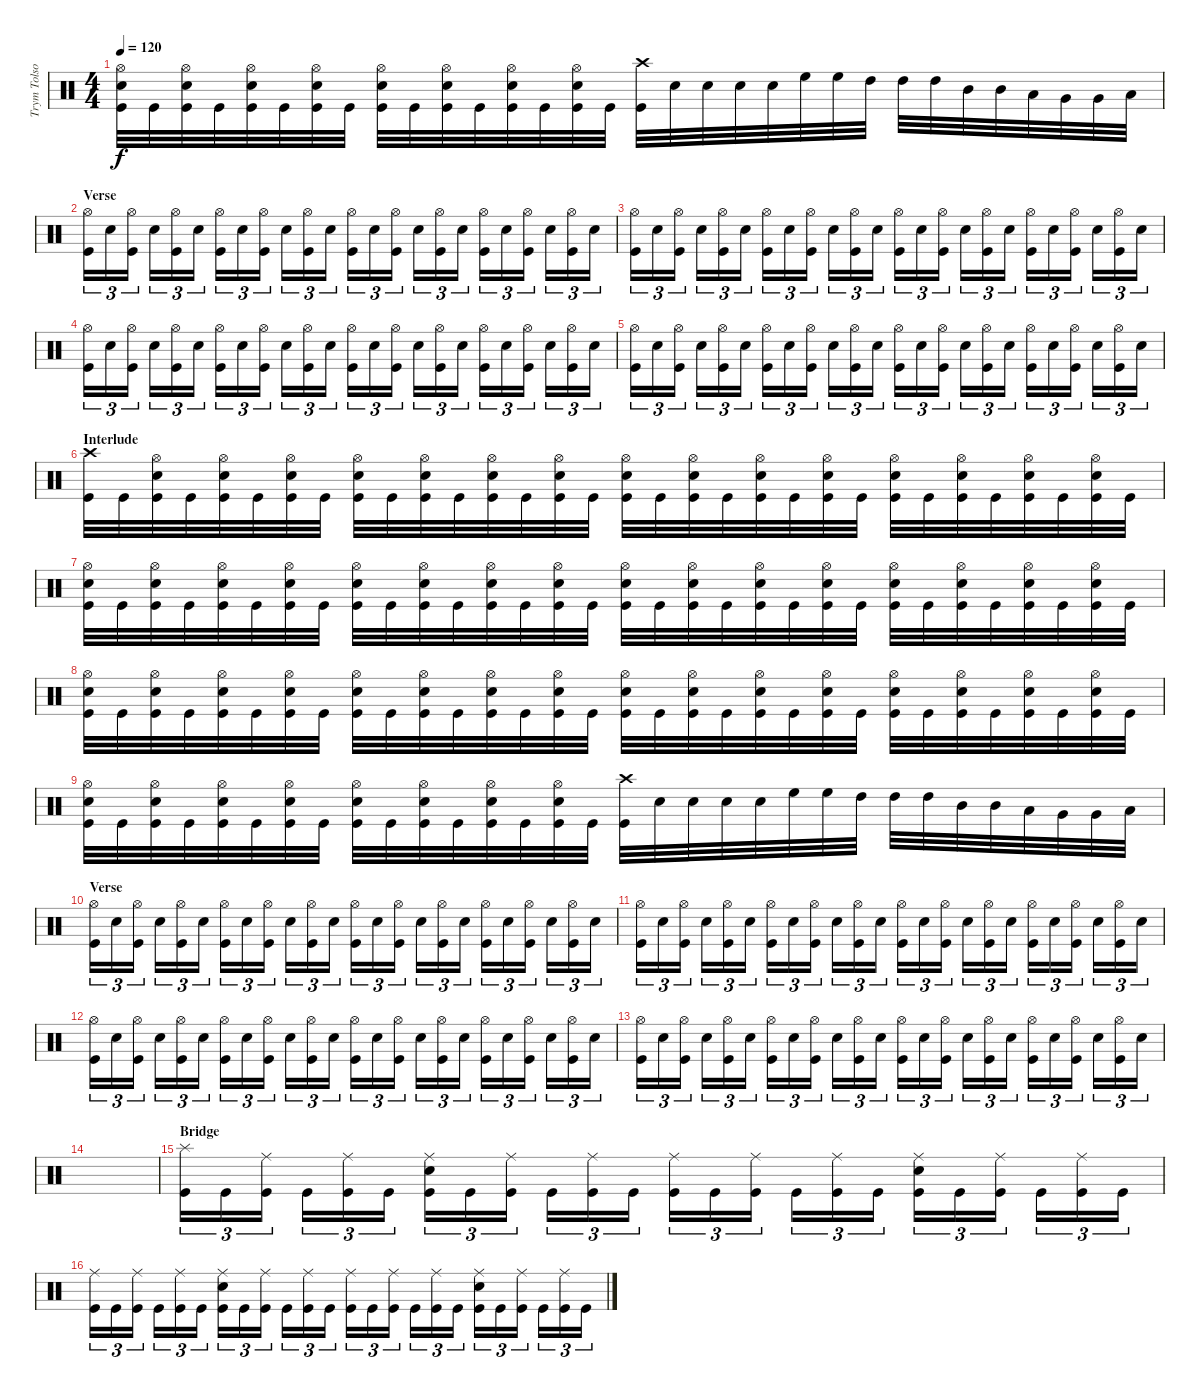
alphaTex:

\track ("Trym Tolson" "Trym Tolso") {instrument percussion}
\staff {score}
\articulation defaults
\ts (4 4)
\tempo 120
\clef neutral
\ks c
("Hi-Hat (open)" "Electric Snare (hit)" "Kick (hit)").32{dy f} "Kick (hit)".32 ("Hi-Hat (open)" "Electric Snare (hit)" "Kick (hit)").32 "Kick (hit)".32 ("Hi-Hat (open)" "Electric Snare (hit)" "Kick (hit)").32 "Kick (hit)".32 ("Hi-Hat (open)" "Electric Snare (hit)" "Kick (hit)").32 "Kick (hit)".32 ("Hi-Hat (open)" "Electric Snare (hit)" "Kick (hit)").32 "Kick (hit)".32 ("Hi-Hat (open)" "Electric Snare (hit)" "Kick (hit)").32 "Kick (hit)".32 ("Hi-Hat (open)" "Electric Snare (hit)" "Kick (hit)").32 "Kick (hit)".32 ("Hi-Hat (open)" "Electric Snare (hit)" "Kick (hit)").32 "Kick (hit)".32 ("Crash high (hit)" "Kick (hit)").32 "Electric Snare (hit)".32 "Electric Snare (hit)".32 "Electric Snare (hit)".32 "Electric Snare (hit)".32 "High Floor Tom (hit)".32 "High Floor Tom (hit)".32 "High Tom (hit)".32 "High Tom (hit)".32 "High Tom (hit)".32 "Mid Tom (hit)".32 "Mid Tom (hit)".32 "Low Tom (hit)".32 "Very Low Tom (hit)".32 "Very Low Tom (hit)".32 "Low Floor Tom (hit)".32 |
\section ("" "Verse")
("Hi-Hat (open)" "Kick (hit)").16{tu (3 2)} "Electric Snare (hit)".16{tu (3 2)} ("Hi-Hat (open)" "Kick (hit)").16{tu (3 2)} "Electric Snare (hit)".16{tu (3 2)} ("Hi-Hat (open)" "Kick (hit)").16{tu (3 2)} "Electric Snare (hit)".16{tu (3 2)} ("Hi-Hat (open)" "Kick (hit)").16{tu (3 2)} "Electric Snare (hit)".16{tu (3 2)} ("Hi-Hat (open)" "Kick (hit)").16{tu (3 2)} "Electric Snare (hit)".16{tu (3 2)} ("Hi-Hat (open)" "Kick (hit)").16{tu (3 2)} "Electric Snare (hit)".16{tu (3 2)} ("Hi-Hat (open)" "Kick (hit)").16{tu (3 2)} "Electric Snare (hit)".16{tu (3 2)} ("Hi-Hat (open)" "Kick (hit)").16{tu (3 2)} "Electric Snare (hit)".16{tu (3 2)} ("Hi-Hat (open)" "Kick (hit)").16{tu (3 2)} "Electric Snare (hit)".16{tu (3 2)} ("Hi-Hat (open)" "Kick (hit)").16{tu (3 2)} "Electric Snare (hit)".16{tu (3 2)} ("Hi-Hat (open)" "Kick (hit)").16{tu (3 2)} "Electric Snare (hit)".16{tu (3 2)} ("Hi-Hat (open)" "Kick (hit)").16{tu (3 2)} "Electric Snare (hit)".16{tu (3 2)} |
("Hi-Hat (open)" "Kick (hit)").16{tu (3 2)} "Electric Snare (hit)".16{tu (3 2)} ("Hi-Hat (open)" "Kick (hit)").16{tu (3 2)} "Electric Snare (hit)".16{tu (3 2)} ("Hi-Hat (open)" "Kick (hit)").16{tu (3 2)} "Electric Snare (hit)".16{tu (3 2)} ("Hi-Hat (open)" "Kick (hit)").16{tu (3 2)} "Electric Snare (hit)".16{tu (3 2)} ("Hi-Hat (open)" "Kick (hit)").16{tu (3 2)} "Electric Snare (hit)".16{tu (3 2)} ("Hi-Hat (open)" "Kick (hit)").16{tu (3 2)} "Electric Snare (hit)".16{tu (3 2)} ("Hi-Hat (open)" "Kick (hit)").16{tu (3 2)} "Electric Snare (hit)".16{tu (3 2)} ("Hi-Hat (open)" "Kick (hit)").16{tu (3 2)} "Electric Snare (hit)".16{tu (3 2)} ("Hi-Hat (open)" "Kick (hit)").16{tu (3 2)} "Electric Snare (hit)".16{tu (3 2)} ("Hi-Hat (open)" "Kick (hit)").16{tu (3 2)} "Electric Snare (hit)".16{tu (3 2)} ("Hi-Hat (open)" "Kick (hit)").16{tu (3 2)} "Electric Snare (hit)".16{tu (3 2)} ("Hi-Hat (open)" "Kick (hit)").16{tu (3 2)} "Electric Snare (hit)".16{tu (3 2)} |
("Hi-Hat (open)" "Kick (hit)").16{tu (3 2)} "Electric Snare (hit)".16{tu (3 2)} ("Hi-Hat (open)" "Kick (hit)").16{tu (3 2)} "Electric Snare (hit)".16{tu (3 2)} ("Hi-Hat (open)" "Kick (hit)").16{tu (3 2)} "Electric Snare (hit)".16{tu (3 2)} ("Hi-Hat (open)" "Kick (hit)").16{tu (3 2)} "Electric Snare (hit)".16{tu (3 2)} ("Hi-Hat (open)" "Kick (hit)").16{tu (3 2)} "Electric Snare (hit)".16{tu (3 2)} ("Hi-Hat (open)" "Kick (hit)").16{tu (3 2)} "Electric Snare (hit)".16{tu (3 2)} ("Hi-Hat (open)" "Kick (hit)").16{tu (3 2)} "Electric Snare (hit)".16{tu (3 2)} ("Hi-Hat (open)" "Kick (hit)").16{tu (3 2)} "Electric Snare (hit)".16{tu (3 2)} ("Hi-Hat (open)" "Kick (hit)").16{tu (3 2)} "Electric Snare (hit)".16{tu (3 2)} ("Hi-Hat (open)" "Kick (hit)").16{tu (3 2)} "Electric Snare (hit)".16{tu (3 2)} ("Hi-Hat (open)" "Kick (hit)").16{tu (3 2)} "Electric Snare (hit)".16{tu (3 2)} ("Hi-Hat (open)" "Kick (hit)").16{tu (3 2)} "Electric Snare (hit)".16{tu (3 2)} |
("Hi-Hat (open)" "Kick (hit)").16{tu (3 2)} "Electric Snare (hit)".16{tu (3 2)} ("Hi-Hat (open)" "Kick (hit)").16{tu (3 2)} "Electric Snare (hit)".16{tu (3 2)} ("Hi-Hat (open)" "Kick (hit)").16{tu (3 2)} "Electric Snare (hit)".16{tu (3 2)} ("Hi-Hat (open)" "Kick (hit)").16{tu (3 2)} "Electric Snare (hit)".16{tu (3 2)} ("Hi-Hat (open)" "Kick (hit)").16{tu (3 2)} "Electric Snare (hit)".16{tu (3 2)} ("Hi-Hat (open)" "Kick (hit)").16{tu (3 2)} "Electric Snare (hit)".16{tu (3 2)} ("Hi-Hat (open)" "Kick (hit)").16{tu (3 2)} "Electric Snare (hit)".16{tu (3 2)} ("Hi-Hat (open)" "Kick (hit)").16{tu (3 2)} "Electric Snare (hit)".16{tu (3 2)} ("Hi-Hat (open)" "Kick (hit)").16{tu (3 2)} "Electric Snare (hit)".16{tu (3 2)} ("Hi-Hat (open)" "Kick (hit)").16{tu (3 2)} "Electric Snare (hit)".16{tu (3 2)} ("Hi-Hat (open)" "Kick (hit)").16{tu (3 2)} "Electric Snare (hit)".16{tu (3 2)} ("Hi-Hat (open)" "Kick (hit)").16{tu (3 2)} "Electric Snare (hit)".16{tu (3 2)} |
\section ("" "Interlude")
("Crash high (hit)" "Kick (hit)").32 "Kick (hit)".32 ("Hi-Hat (open)" "Electric Snare (hit)" "Kick (hit)").32 "Kick (hit)".32 ("Hi-Hat (open)" "Electric Snare (hit)" "Kick (hit)").32 "Kick (hit)".32 ("Hi-Hat (open)" "Electric Snare (hit)" "Kick (hit)").32 "Kick (hit)".32 ("Hi-Hat (open)" "Electric Snare (hit)" "Kick (hit)").32 "Kick (hit)".32 ("Hi-Hat (open)" "Electric Snare (hit)" "Kick (hit)").32 "Kick (hit)".32 ("Hi-Hat (open)" "Electric Snare (hit)" "Kick (hit)").32 "Kick (hit)".32 ("Hi-Hat (open)" "Electric Snare (hit)" "Kick (hit)").32 "Kick (hit)".32 ("Hi-Hat (open)" "Electric Snare (hit)" "Kick (hit)").32 "Kick (hit)".32 ("Hi-Hat (open)" "Electric Snare (hit)" "Kick (hit)").32 "Kick (hit)".32 ("Hi-Hat (open)" "Electric Snare (hit)" "Kick (hit)").32 "Kick (hit)".32 ("Hi-Hat (open)" "Electric Snare (hit)" "Kick (hit)").32 "Kick (hit)".32 ("Hi-Hat (open)" "Electric Snare (hit)" "Kick (hit)").32 "Kick (hit)".32 ("Hi-Hat (open)" "Electric Snare (hit)" "Kick (hit)").32 "Kick (hit)".32 ("Hi-Hat (open)" "Electric Snare (hit)" "Kick (hit)").32 "Kick (hit)".32 ("Hi-Hat (open)" "Electric Snare (hit)" "Kick (hit)").32 "Kick (hit)".32 |
("Hi-Hat (open)" "Electric Snare (hit)" "Kick (hit)").32 "Kick (hit)".32 ("Hi-Hat (open)" "Electric Snare (hit)" "Kick (hit)").32 "Kick (hit)".32 ("Hi-Hat (open)" "Electric Snare (hit)" "Kick (hit)").32 "Kick (hit)".32 ("Hi-Hat (open)" "Electric Snare (hit)" "Kick (hit)").32 "Kick (hit)".32 ("Hi-Hat (open)" "Electric Snare (hit)" "Kick (hit)").32 "Kick (hit)".32 ("Hi-Hat (open)" "Electric Snare (hit)" "Kick (hit)").32 "Kick (hit)".32 ("Hi-Hat (open)" "Electric Snare (hit)" "Kick (hit)").32 "Kick (hit)".32 ("Hi-Hat (open)" "Electric Snare (hit)" "Kick (hit)").32 "Kick (hit)".32 ("Hi-Hat (open)" "Electric Snare (hit)" "Kick (hit)").32 "Kick (hit)".32 ("Hi-Hat (open)" "Electric Snare (hit)" "Kick (hit)").32 "Kick (hit)".32 ("Hi-Hat (open)" "Electric Snare (hit)" "Kick (hit)").32 "Kick (hit)".32 ("Hi-Hat (open)" "Electric Snare (hit)" "Kick (hit)").32 "Kick (hit)".32 ("Hi-Hat (open)" "Electric Snare (hit)" "Kick (hit)").32 "Kick (hit)".32 ("Hi-Hat (open)" "Electric Snare (hit)" "Kick (hit)").32 "Kick (hit)".32 ("Hi-Hat (open)" "Electric Snare (hit)" "Kick (hit)").32 "Kick (hit)".32 ("Hi-Hat (open)" "Electric Snare (hit)" "Kick (hit)").32 "Kick (hit)".32 |
("Hi-Hat (open)" "Electric Snare (hit)" "Kick (hit)").32 "Kick (hit)".32 ("Hi-Hat (open)" "Electric Snare (hit)" "Kick (hit)").32 "Kick (hit)".32 ("Hi-Hat (open)" "Electric Snare (hit)" "Kick (hit)").32 "Kick (hit)".32 ("Hi-Hat (open)" "Electric Snare (hit)" "Kick (hit)").32 "Kick (hit)".32 ("Hi-Hat (open)" "Electric Snare (hit)" "Kick (hit)").32 "Kick (hit)".32 ("Hi-Hat (open)" "Electric Snare (hit)" "Kick (hit)").32 "Kick (hit)".32 ("Hi-Hat (open)" "Electric Snare (hit)" "Kick (hit)").32 "Kick (hit)".32 ("Hi-Hat (open)" "Electric Snare (hit)" "Kick (hit)").32 "Kick (hit)".32 ("Hi-Hat (open)" "Electric Snare (hit)" "Kick (hit)").32 "Kick (hit)".32 ("Hi-Hat (open)" "Electric Snare (hit)" "Kick (hit)").32 "Kick (hit)".32 ("Hi-Hat (open)" "Electric Snare (hit)" "Kick (hit)").32 "Kick (hit)".32 ("Hi-Hat (open)" "Electric Snare (hit)" "Kick (hit)").32 "Kick (hit)".32 ("Hi-Hat (open)" "Electric Snare (hit)" "Kick (hit)").32 "Kick (hit)".32 ("Hi-Hat (open)" "Electric Snare (hit)" "Kick (hit)").32 "Kick (hit)".32 ("Hi-Hat (open)" "Electric Snare (hit)" "Kick (hit)").32 "Kick (hit)".32 ("Hi-Hat (open)" "Electric Snare (hit)" "Kick (hit)").32 "Kick (hit)".32 |
("Hi-Hat (open)" "Electric Snare (hit)" "Kick (hit)").32 "Kick (hit)".32 ("Hi-Hat (open)" "Electric Snare (hit)" "Kick (hit)").32 "Kick (hit)".32 ("Hi-Hat (open)" "Electric Snare (hit)" "Kick (hit)").32 "Kick (hit)".32 ("Hi-Hat (open)" "Electric Snare (hit)" "Kick (hit)").32 "Kick (hit)".32 ("Hi-Hat (open)" "Electric Snare (hit)" "Kick (hit)").32 "Kick (hit)".32 ("Hi-Hat (open)" "Electric Snare (hit)" "Kick (hit)").32 "Kick (hit)".32 ("Hi-Hat (open)" "Electric Snare (hit)" "Kick (hit)").32 "Kick (hit)".32 ("Hi-Hat (open)" "Electric Snare (hit)" "Kick (hit)").32 "Kick (hit)".32 ("Crash high (hit)" "Kick (hit)").32 "Electric Snare (hit)".32 "Electric Snare (hit)".32 "Electric Snare (hit)".32 "Electric Snare (hit)".32 "High Floor Tom (hit)".32 "High Floor Tom (hit)".32 "High Tom (hit)".32 "High Tom (hit)".32 "High Tom (hit)".32 "Mid Tom (hit)".32 "Mid Tom (hit)".32 "Low Tom (hit)".32 "Very Low Tom (hit)".32 "Very Low Tom (hit)".32 "Low Floor Tom (hit)".32 |
\section ("" "Verse")
("Hi-Hat (open)" "Kick (hit)").16{tu (3 2)} "Electric Snare (hit)".16{tu (3 2)} ("Hi-Hat (open)" "Kick (hit)").16{tu (3 2)} "Electric Snare (hit)".16{tu (3 2)} ("Hi-Hat (open)" "Kick (hit)").16{tu (3 2)} "Electric Snare (hit)".16{tu (3 2)} ("Hi-Hat (open)" "Kick (hit)").16{tu (3 2)} "Electric Snare (hit)".16{tu (3 2)} ("Hi-Hat (open)" "Kick (hit)").16{tu (3 2)} "Electric Snare (hit)".16{tu (3 2)} ("Hi-Hat (open)" "Kick (hit)").16{tu (3 2)} "Electric Snare (hit)".16{tu (3 2)} ("Hi-Hat (open)" "Kick (hit)").16{tu (3 2)} "Electric Snare (hit)".16{tu (3 2)} ("Hi-Hat (open)" "Kick (hit)").16{tu (3 2)} "Electric Snare (hit)".16{tu (3 2)} ("Hi-Hat (open)" "Kick (hit)").16{tu (3 2)} "Electric Snare (hit)".16{tu (3 2)} ("Hi-Hat (open)" "Kick (hit)").16{tu (3 2)} "Electric Snare (hit)".16{tu (3 2)} ("Hi-Hat (open)" "Kick (hit)").16{tu (3 2)} "Electric Snare (hit)".16{tu (3 2)} ("Hi-Hat (open)" "Kick (hit)").16{tu (3 2)} "Electric Snare (hit)".16{tu (3 2)} |
("Hi-Hat (open)" "Kick (hit)").16{tu (3 2)} "Electric Snare (hit)".16{tu (3 2)} ("Hi-Hat (open)" "Kick (hit)").16{tu (3 2)} "Electric Snare (hit)".16{tu (3 2)} ("Hi-Hat (open)" "Kick (hit)").16{tu (3 2)} "Electric Snare (hit)".16{tu (3 2)} ("Hi-Hat (open)" "Kick (hit)").16{tu (3 2)} "Electric Snare (hit)".16{tu (3 2)} ("Hi-Hat (open)" "Kick (hit)").16{tu (3 2)} "Electric Snare (hit)".16{tu (3 2)} ("Hi-Hat (open)" "Kick (hit)").16{tu (3 2)} "Electric Snare (hit)".16{tu (3 2)} ("Hi-Hat (open)" "Kick (hit)").16{tu (3 2)} "Electric Snare (hit)".16{tu (3 2)} ("Hi-Hat (open)" "Kick (hit)").16{tu (3 2)} "Electric Snare (hit)".16{tu (3 2)} ("Hi-Hat (open)" "Kick (hit)").16{tu (3 2)} "Electric Snare (hit)".16{tu (3 2)} ("Hi-Hat (open)" "Kick (hit)").16{tu (3 2)} "Electric Snare (hit)".16{tu (3 2)} ("Hi-Hat (open)" "Kick (hit)").16{tu (3 2)} "Electric Snare (hit)".16{tu (3 2)} ("Hi-Hat (open)" "Kick (hit)").16{tu (3 2)} "Electric Snare (hit)".16{tu (3 2)} |
("Hi-Hat (open)" "Kick (hit)").16{tu (3 2)} "Electric Snare (hit)".16{tu (3 2)} ("Hi-Hat (open)" "Kick (hit)").16{tu (3 2)} "Electric Snare (hit)".16{tu (3 2)} ("Hi-Hat (open)" "Kick (hit)").16{tu (3 2)} "Electric Snare (hit)".16{tu (3 2)} ("Hi-Hat (open)" "Kick (hit)").16{tu (3 2)} "Electric Snare (hit)".16{tu (3 2)} ("Hi-Hat (open)" "Kick (hit)").16{tu (3 2)} "Electric Snare (hit)".16{tu (3 2)} ("Hi-Hat (open)" "Kick (hit)").16{tu (3 2)} "Electric Snare (hit)".16{tu (3 2)} ("Hi-Hat (open)" "Kick (hit)").16{tu (3 2)} "Electric Snare (hit)".16{tu (3 2)} ("Hi-Hat (open)" "Kick (hit)").16{tu (3 2)} "Electric Snare (hit)".16{tu (3 2)} ("Hi-Hat (open)" "Kick (hit)").16{tu (3 2)} "Electric Snare (hit)".16{tu (3 2)} ("Hi-Hat (open)" "Kick (hit)").16{tu (3 2)} "Electric Snare (hit)".16{tu (3 2)} ("Hi-Hat (open)" "Kick (hit)").16{tu (3 2)} "Electric Snare (hit)".16{tu (3 2)} ("Hi-Hat (open)" "Kick (hit)").16{tu (3 2)} "Electric Snare (hit)".16{tu (3 2)} |
("Hi-Hat (open)" "Kick (hit)").16{tu (3 2)} "Electric Snare (hit)".16{tu (3 2)} ("Hi-Hat (open)" "Kick (hit)").16{tu (3 2)} "Electric Snare (hit)".16{tu (3 2)} ("Hi-Hat (open)" "Kick (hit)").16{tu (3 2)} "Electric Snare (hit)".16{tu (3 2)} ("Hi-Hat (open)" "Kick (hit)").16{tu (3 2)} "Electric Snare (hit)".16{tu (3 2)} ("Hi-Hat (open)" "Kick (hit)").16{tu (3 2)} "Electric Snare (hit)".16{tu (3 2)} ("Hi-Hat (open)" "Kick (hit)").16{tu (3 2)} "Electric Snare (hit)".16{tu (3 2)} ("Hi-Hat (open)" "Kick (hit)").16{tu (3 2)} "Electric Snare (hit)".16{tu (3 2)} ("Hi-Hat (open)" "Kick (hit)").16{tu (3 2)} "Electric Snare (hit)".16{tu (3 2)} ("Hi-Hat (open)" "Kick (hit)").16{tu (3 2)} "Electric Snare (hit)".16{tu (3 2)} ("Hi-Hat (open)" "Kick (hit)").16{tu (3 2)} "Electric Snare (hit)".16{tu (3 2)} ("Hi-Hat (open)" "Kick (hit)").16{tu (3 2)} "Electric Snare (hit)".16{tu (3 2)} ("Hi-Hat (open)" "Kick (hit)").16{tu (3 2)} "Electric Snare (hit)".16{tu (3 2)} |
|
\section ("" "Bridge")
("Splash (hit)" "Kick (hit)").16{tu (3 2)} "Kick (hit)".16{tu (3 2)} ("Ride (middle)" "Kick (hit)").16{tu (3 2)} "Kick (hit)".16{tu (3 2)} ("Ride (middle)" "Kick (hit)").16{tu (3 2)} "Kick (hit)".16{tu (3 2)} ("Ride (middle)" "Electric Snare (hit)" "Kick (hit)").16{tu (3 2)} "Kick (hit)".16{tu (3 2)} ("Ride (middle)" "Kick (hit)").16{tu (3 2)} "Kick (hit)".16{tu (3 2)} ("Ride (middle)" "Kick (hit)").16{tu (3 2)} "Kick (hit)".16{tu (3 2)} ("Ride (middle)" "Kick (hit)").16{tu (3 2)} "Kick (hit)".16{tu (3 2)} ("Ride (middle)" "Kick (hit)").16{tu (3 2)} "Kick (hit)".16{tu (3 2)} ("Ride (middle)" "Kick (hit)").16{tu (3 2)} "Kick (hit)".16{tu (3 2)} ("Ride (middle)" "Electric Snare (hit)" "Kick (hit)").16{tu (3 2)} "Kick (hit)".16{tu (3 2)} ("Ride (middle)" "Kick (hit)").16{tu (3 2)} "Kick (hit)".16{tu (3 2)} ("Ride (middle)" "Kick (hit)").16{tu (3 2)} "Kick (hit)".16{tu (3 2)} |
("Ride (middle)" "Kick (hit)").16{tu (3 2)} "Kick (hit)".16{tu (3 2)} ("Ride (middle)" "Kick (hit)").16{tu (3 2)} "Kick (hit)".16{tu (3 2)} ("Ride (middle)" "Kick (hit)").16{tu (3 2)} "Kick (hit)".16{tu (3 2)} ("Ride (middle)" "Electric Snare (hit)" "Kick (hit)").16{tu (3 2)} "Kick (hit)".16{tu (3 2)} ("Ride (middle)" "Kick (hit)").16{tu (3 2)} "Kick (hit)".16{tu (3 2)} ("Ride (middle)" "Kick (hit)").16{tu (3 2)} "Kick (hit)".16{tu (3 2)} ("Ride (middle)" "Kick (hit)").16{tu (3 2)} "Kick (hit)".16{tu (3 2)} ("Ride (middle)" "Kick (hit)").16{tu (3 2)} "Kick (hit)".16{tu (3 2)} ("Ride (middle)" "Kick (hit)").16{tu (3 2)} "Kick (hit)".16{tu (3 2)} ("Ride (middle)" "Electric Snare (hit)" "Kick (hit)").16{tu (3 2)} "Kick (hit)".16{tu (3 2)} ("Ride (middle)" "Kick (hit)").16{tu (3 2)} "Kick (hit)".16{tu (3 2)} ("Ride (middle)" "Kick (hit)").16{tu (3 2)} "Kick (hit)".16{tu (3 2)}
